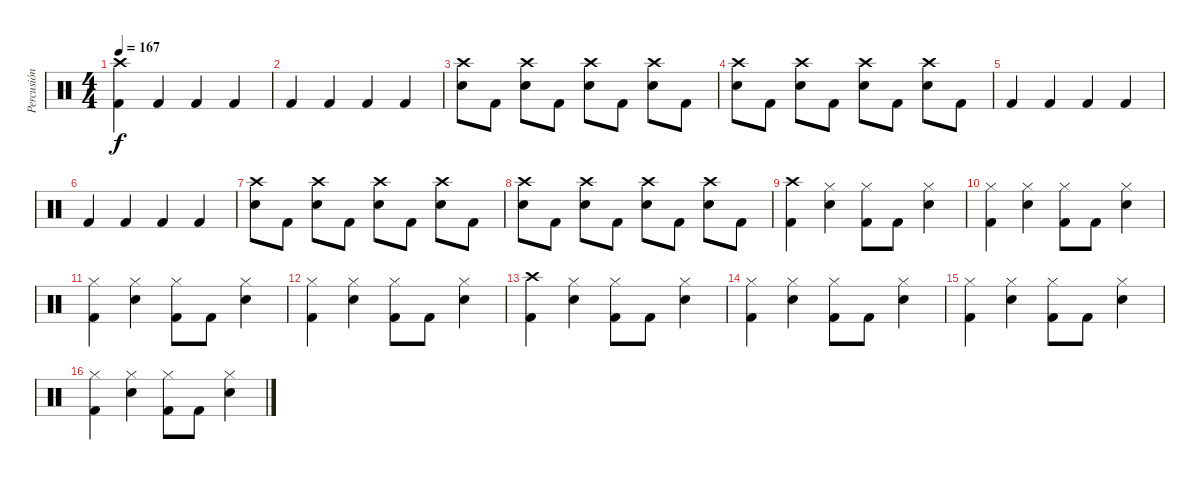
\track ("Percusión" "Percusión") {instrument percussion}
\staff {score}
\articulation defaults
\ts (4 4)
\tempo 167
\clef neutral
\ks c
("Crash high (hit)" "Kick (hit) 2").4{dy f} "Kick (hit) 2".4 "Kick (hit) 2".4 "Kick (hit) 2".4 |
"Kick (hit) 2".4 "Kick (hit) 2".4 "Kick (hit) 2".4 "Kick (hit) 2".4 |
("Crash high (hit)" "Electric Snare (hit)").8 "Kick (hit) 2".8 ("Crash high (hit)" "Electric Snare (hit)").8 "Kick (hit) 2".8 ("Crash high (hit)" "Electric Snare (hit)").8 "Kick (hit) 2".8 ("Crash high (hit)" "Electric Snare (hit)").8 "Kick (hit) 2".8 |
("Crash high (hit)" "Electric Snare (hit)").8 "Kick (hit) 2".8 ("Crash high (hit)" "Electric Snare (hit)").8 "Kick (hit) 2".8 ("Crash high (hit)" "Electric Snare (hit)").8 "Kick (hit) 2".8 ("Crash high (hit)" "Electric Snare (hit)").8 "Kick (hit) 2".8 |
"Kick (hit) 2".4 "Kick (hit) 2".4 "Kick (hit) 2".4 "Kick (hit) 2".4 |
"Kick (hit) 2".4 "Kick (hit) 2".4 "Kick (hit) 2".4 "Kick (hit) 2".4 |
("Crash high (hit)" "Electric Snare (hit)").8 "Kick (hit) 2".8 ("Crash high (hit)" "Electric Snare (hit)").8 "Kick (hit) 2".8 ("Crash high (hit)" "Electric Snare (hit)").8 "Kick (hit) 2".8 ("Crash high (hit)" "Electric Snare (hit)").8 "Kick (hit) 2".8 |
("Crash high (hit)" "Electric Snare (hit)").8 "Kick (hit) 2".8 ("Crash high (hit)" "Electric Snare (hit)").8 "Kick (hit) 2".8 ("Crash high (hit)" "Electric Snare (hit)").8 "Kick (hit) 2".8 ("Crash high (hit)" "Electric Snare (hit)").8 "Kick (hit) 2".8 |
("Crash high (hit)" "Kick (hit) 2").4 ("Hi-Hat (closed)" "Electric Snare (hit)").4 ("Hi-Hat (closed)" "Kick (hit) 2").8 "Kick (hit) 2".8 ("Hi-Hat (closed)" "Electric Snare (hit)").4 |
("Hi-Hat (closed)" "Kick (hit) 2").4 ("Hi-Hat (closed)" "Electric Snare (hit)").4 ("Hi-Hat (closed)" "Kick (hit) 2").8 "Kick (hit) 2".8 ("Hi-Hat (closed)" "Electric Snare (hit)").4 |
("Hi-Hat (closed)" "Kick (hit) 2").4 ("Hi-Hat (closed)" "Electric Snare (hit)").4 ("Hi-Hat (closed)" "Kick (hit) 2").8 "Kick (hit) 2".8 ("Hi-Hat (closed)" "Electric Snare (hit)").4 |
("Hi-Hat (closed)" "Kick (hit) 2").4 ("Hi-Hat (closed)" "Electric Snare (hit)").4 ("Hi-Hat (closed)" "Kick (hit) 2").8 "Kick (hit) 2".8 ("Hi-Hat (closed)" "Electric Snare (hit)").4 |
("Crash high (hit)" "Kick (hit) 2").4 ("Hi-Hat (closed)" "Electric Snare (hit)").4 ("Hi-Hat (closed)" "Kick (hit) 2").8 "Kick (hit) 2".8 ("Hi-Hat (closed)" "Electric Snare (hit)").4 |
("Hi-Hat (closed)" "Kick (hit) 2").4 ("Hi-Hat (closed)" "Electric Snare (hit)").4 ("Hi-Hat (closed)" "Kick (hit) 2").8 "Kick (hit) 2".8 ("Hi-Hat (closed)" "Electric Snare (hit)").4 |
("Hi-Hat (closed)" "Kick (hit) 2").4 ("Hi-Hat (closed)" "Electric Snare (hit)").4 ("Hi-Hat (closed)" "Kick (hit) 2").8 "Kick (hit) 2".8 ("Hi-Hat (closed)" "Electric Snare (hit)").4 |
("Hi-Hat (closed)" "Kick (hit) 2").4 ("Hi-Hat (closed)" "Electric Snare (hit)").4 ("Hi-Hat (closed)" "Kick (hit) 2").8 "Kick (hit) 2".8 ("Hi-Hat (closed)" "Electric Snare (hit)").4
